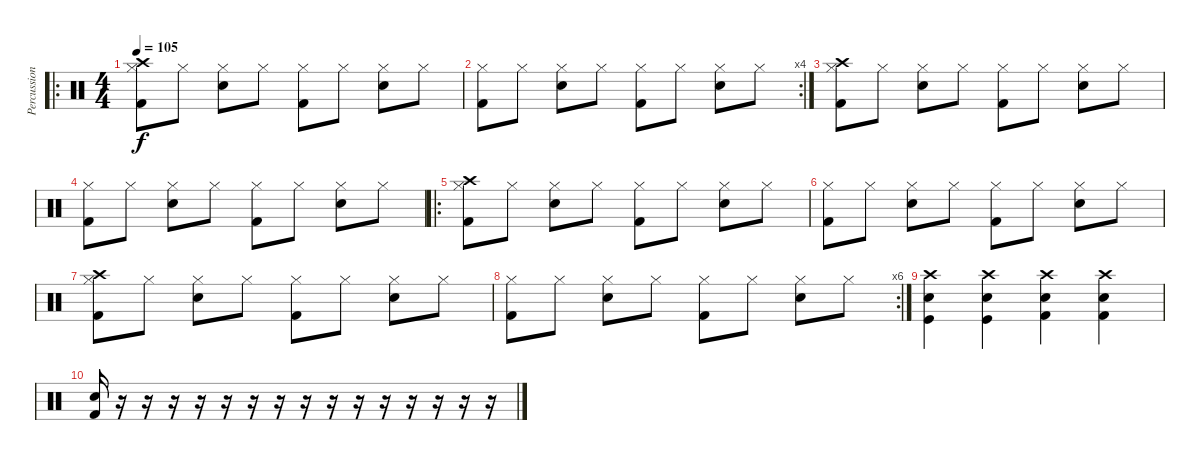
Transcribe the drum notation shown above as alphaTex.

\track ("Percussion" "Percussion") {instrument percussion}
\staff {score}
\articulation defaults
\ro
\ts (4 4)
\tempo 105
\clef neutral
\ks c
("Hi-Hat (closed)" "Crash high (hit)" "Kick (hit) 2").8{dy f} "Hi-Hat (closed)".8 ("Hi-Hat (closed)" "Snare (hit) 2").8 "Hi-Hat (closed)".8 ("Hi-Hat (closed)" "Kick (hit) 2").8 "Hi-Hat (closed)".8 ("Hi-Hat (closed)" "Snare (hit) 2").8 "Hi-Hat (closed)".8 |
\rc 4
("Hi-Hat (closed)" "Kick (hit) 2").8 "Hi-Hat (closed)".8 ("Hi-Hat (closed)" "Snare (hit) 2").8 "Hi-Hat (closed)".8 ("Hi-Hat (closed)" "Kick (hit) 2").8 "Hi-Hat (closed)".8 ("Hi-Hat (closed)" "Snare (hit) 2").8 "Hi-Hat (closed)".8 |
("Hi-Hat (closed)" "Crash high (hit)" "Kick (hit) 2").8 "Hi-Hat (closed)".8 ("Hi-Hat (closed)" "Snare (hit) 2").8 "Hi-Hat (closed)".8 ("Hi-Hat (closed)" "Kick (hit) 2").8 "Hi-Hat (closed)".8 ("Hi-Hat (closed)" "Snare (hit) 2").8 "Hi-Hat (closed)".8 |
("Hi-Hat (closed)" "Kick (hit) 2").8 "Hi-Hat (closed)".8 ("Hi-Hat (closed)" "Snare (hit) 2").8 "Hi-Hat (closed)".8 ("Hi-Hat (closed)" "Kick (hit) 2").8 "Hi-Hat (closed)".8 ("Hi-Hat (closed)" "Snare (hit) 2").8 "Hi-Hat (closed)".8 |
\ro
("Hi-Hat (closed)" "Crash high (hit)" "Kick (hit) 2").8 "Hi-Hat (closed)".8 ("Hi-Hat (closed)" "Snare (hit) 2").8 "Hi-Hat (closed)".8 ("Hi-Hat (closed)" "Kick (hit) 2").8 "Hi-Hat (closed)".8 ("Hi-Hat (closed)" "Snare (hit) 2").8 "Hi-Hat (closed)".8 |
("Hi-Hat (closed)" "Kick (hit) 2").8 "Hi-Hat (closed)".8 ("Hi-Hat (closed)" "Snare (hit) 2").8 "Hi-Hat (closed)".8 ("Hi-Hat (closed)" "Kick (hit) 2").8 "Hi-Hat (closed)".8 ("Hi-Hat (closed)" "Snare (hit) 2").8 "Hi-Hat (closed)".8 |
("Hi-Hat (closed)" "Crash high (hit)" "Kick (hit) 2").8 "Hi-Hat (closed)".8 ("Hi-Hat (closed)" "Snare (hit) 2").8 "Hi-Hat (closed)".8 ("Hi-Hat (closed)" "Kick (hit) 2").8 "Hi-Hat (closed)".8 ("Hi-Hat (closed)" "Snare (hit) 2").8 "Hi-Hat (closed)".8 |
\rc 6
("Hi-Hat (closed)" "Kick (hit) 2").8 "Hi-Hat (closed)".8 ("Hi-Hat (closed)" "Snare (hit) 2").8 "Hi-Hat (closed)".8 ("Hi-Hat (closed)" "Kick (hit) 2").8 "Hi-Hat (closed)".8 ("Hi-Hat (closed)" "Snare (hit) 2").8 "Hi-Hat (closed)".8 |
("Crash high (hit)" "Snare (hit) 2" "Kick (hit)").4 ("Crash high (hit)" "Snare (hit) 2" "Kick (hit)").4 ("Crash high (hit)" "Snare (hit) 2" "Kick (hit) 2").4 ("Crash high (hit)" "Snare (hit) 2" "Kick (hit) 2").4 |
("Snare (hit) 2" "Kick (hit) 2").16 r.16 r.16 r.16 r.16 r.16 r.16 r.16 r.16 r.16 r.16 r.16 r.16 r.16 r.16 r.16
